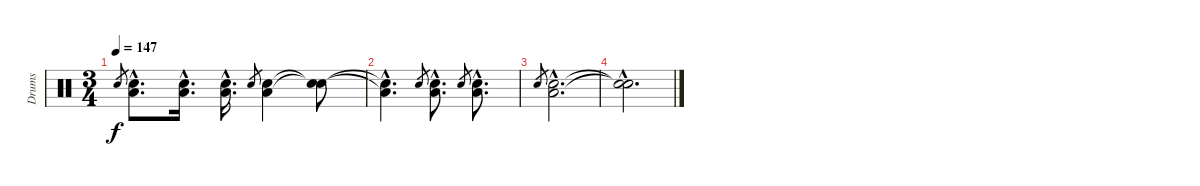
\track ("Drums" "Drums") {instrument percussion}
\staff {score}
\articulation defaults
\ts (3 4)
\tempo 147
\clef neutral
\ks c "Snare (hit) 2".8{gr dy f}
("Snare (hit) 2"{hac} "Low Floor Tom (hit)"{hac}).8{d volume 16} ("Snare (hit) 2"{hac} "Low Floor Tom (hit)"{hac}).16{d} ("Snare (hit) 2"{hac} "Low Floor Tom (hit)"{hac}).16{d} "Snare (hit) 2".8{gr} ("Snare (hit) 2" "Low Floor Tom (hit)").4 ("Snare (hit)"{t} "Snare (hit)"{t}).8 |
("Snare (hit) 2"{hac t} "Low Floor Tom (hit)"{hac t}).4{d} "Snare (hit) 2".8{gr} ("Snare (hit) 2"{hac} "Low Floor Tom (hit)"{hac}).8{d} "Snare (hit) 2".8{gr} ("Snare (hit) 2"{hac} "Low Floor Tom (hit)"{hac}).8{d} |
"Snare (hit) 2".8{gr} ("Snare (hit) 2"{hac} "Low Floor Tom (hit)"{hac}).2{d} |
("Snare (hit)"{hac t} "Snare (hit)"{hac t}).2{d}
